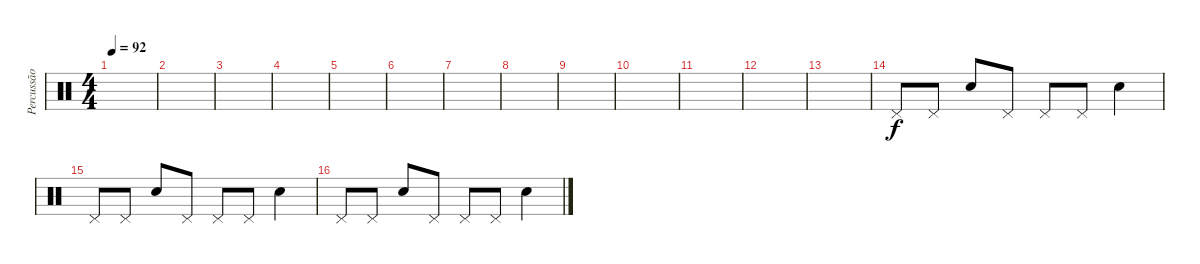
\track ("Percussão" "Percussão") {instrument percussion}
\staff {score}
\articulation defaults
\ts (4 4)
\tempo 92
\clef neutral
\ks c
|
|
|
|
|
|
|
|
|
|
|
|
|
"Pedal Hi-Hat (hit)".8 "Pedal Hi-Hat (hit)".8 "Electric Snare (hit)".8 "Pedal Hi-Hat (hit)".8 "Pedal Hi-Hat (hit)".8 "Pedal Hi-Hat (hit)".8 "Electric Snare (hit)".4 |
"Pedal Hi-Hat (hit)".8 "Pedal Hi-Hat (hit)".8 "Electric Snare (hit)".8 "Pedal Hi-Hat (hit)".8 "Pedal Hi-Hat (hit)".8 "Pedal Hi-Hat (hit)".8 "Electric Snare (hit)".4 |
"Pedal Hi-Hat (hit)".8 "Pedal Hi-Hat (hit)".8 "Electric Snare (hit)".8 "Pedal Hi-Hat (hit)".8 "Pedal Hi-Hat (hit)".8 "Pedal Hi-Hat (hit)".8 "Electric Snare (hit)".4
